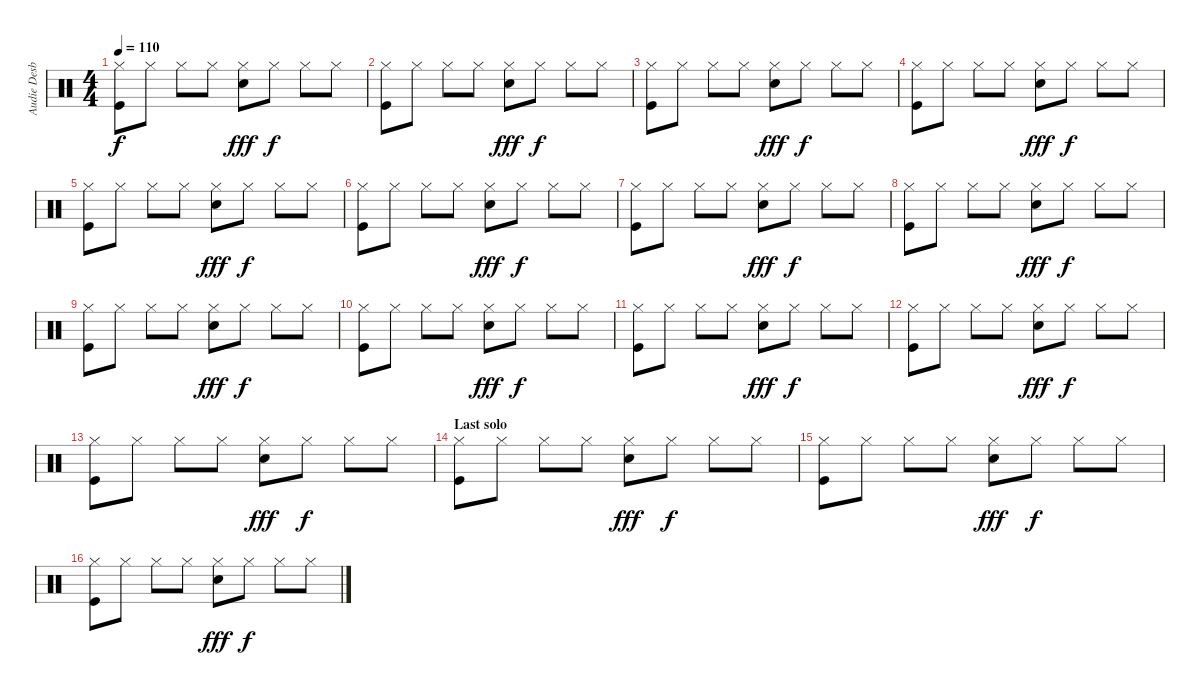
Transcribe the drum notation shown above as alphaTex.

\track ("Audie Desbrow" "Audie Desb") {instrument percussion}
\staff {score}
\articulation defaults
\ts (4 4)
\tempo 110
\clef neutral
\ks c
("Hi-Hat (closed)" "Kick (hit)").8{dy f} "Hi-Hat (closed)".8 "Hi-Hat (closed)".8 "Hi-Hat (closed)".8 ("Hi-Hat (closed)" "Snare (hit) 2").8{dy fff} "Hi-Hat (closed)".8{dy f} "Hi-Hat (closed)".8 "Hi-Hat (closed)".8 |
("Hi-Hat (closed)" "Kick (hit)").8 "Hi-Hat (closed)".8 "Hi-Hat (closed)".8 "Hi-Hat (closed)".8 ("Hi-Hat (closed)" "Snare (hit) 2").8{dy fff} "Hi-Hat (closed)".8{dy f} "Hi-Hat (closed)".8 "Hi-Hat (closed)".8 |
("Hi-Hat (closed)" "Kick (hit)").8 "Hi-Hat (closed)".8 "Hi-Hat (closed)".8 "Hi-Hat (closed)".8 ("Hi-Hat (closed)" "Snare (hit) 2").8{dy fff} "Hi-Hat (closed)".8{dy f} "Hi-Hat (closed)".8 "Hi-Hat (closed)".8 |
("Hi-Hat (closed)" "Kick (hit)").8 "Hi-Hat (closed)".8 "Hi-Hat (closed)".8 "Hi-Hat (closed)".8 ("Hi-Hat (closed)" "Snare (hit) 2").8{dy fff} "Hi-Hat (closed)".8{dy f} "Hi-Hat (closed)".8 "Hi-Hat (closed)".8 |
("Hi-Hat (closed)" "Kick (hit)").8 "Hi-Hat (closed)".8 "Hi-Hat (closed)".8 "Hi-Hat (closed)".8 ("Hi-Hat (closed)" "Snare (hit) 2").8{dy fff} "Hi-Hat (closed)".8{dy f} "Hi-Hat (closed)".8 "Hi-Hat (closed)".8 |
("Hi-Hat (closed)" "Kick (hit)").8 "Hi-Hat (closed)".8 "Hi-Hat (closed)".8 "Hi-Hat (closed)".8 ("Hi-Hat (closed)" "Snare (hit) 2").8{dy fff} "Hi-Hat (closed)".8{dy f} "Hi-Hat (closed)".8 "Hi-Hat (closed)".8 |
("Hi-Hat (closed)" "Kick (hit)").8 "Hi-Hat (closed)".8 "Hi-Hat (closed)".8 "Hi-Hat (closed)".8 ("Hi-Hat (closed)" "Snare (hit) 2").8{dy fff} "Hi-Hat (closed)".8{dy f} "Hi-Hat (closed)".8 "Hi-Hat (closed)".8 |
("Hi-Hat (closed)" "Kick (hit)").8 "Hi-Hat (closed)".8 "Hi-Hat (closed)".8 "Hi-Hat (closed)".8 ("Hi-Hat (closed)" "Snare (hit) 2").8{dy fff} "Hi-Hat (closed)".8{dy f} "Hi-Hat (closed)".8 "Hi-Hat (closed)".8 |
("Hi-Hat (closed)" "Kick (hit)").8 "Hi-Hat (closed)".8 "Hi-Hat (closed)".8 "Hi-Hat (closed)".8 ("Hi-Hat (closed)" "Snare (hit) 2").8{dy fff} "Hi-Hat (closed)".8{dy f} "Hi-Hat (closed)".8 "Hi-Hat (closed)".8 |
("Hi-Hat (closed)" "Kick (hit)").8 "Hi-Hat (closed)".8 "Hi-Hat (closed)".8 "Hi-Hat (closed)".8 ("Hi-Hat (closed)" "Snare (hit) 2").8{dy fff} "Hi-Hat (closed)".8{dy f} "Hi-Hat (closed)".8 "Hi-Hat (closed)".8 |
("Hi-Hat (closed)" "Kick (hit)").8 "Hi-Hat (closed)".8 "Hi-Hat (closed)".8 "Hi-Hat (closed)".8 ("Hi-Hat (closed)" "Snare (hit) 2").8{dy fff} "Hi-Hat (closed)".8{dy f} "Hi-Hat (closed)".8 "Hi-Hat (closed)".8 |
("Hi-Hat (closed)" "Kick (hit)").8 "Hi-Hat (closed)".8 "Hi-Hat (closed)".8 "Hi-Hat (closed)".8 ("Hi-Hat (closed)" "Snare (hit) 2").8{dy fff} "Hi-Hat (closed)".8{dy f} "Hi-Hat (closed)".8 "Hi-Hat (closed)".8 |
("Hi-Hat (closed)" "Kick (hit)").8 "Hi-Hat (closed)".8 "Hi-Hat (closed)".8 "Hi-Hat (closed)".8 ("Hi-Hat (closed)" "Snare (hit) 2").8{dy fff} "Hi-Hat (closed)".8{dy f} "Hi-Hat (closed)".8 "Hi-Hat (closed)".8 |
\section ("" "Last solo")
("Hi-Hat (closed)" "Kick (hit)").8 "Hi-Hat (closed)".8 "Hi-Hat (closed)".8 "Hi-Hat (closed)".8 ("Hi-Hat (closed)" "Snare (hit) 2").8{dy fff} "Hi-Hat (closed)".8{dy f} "Hi-Hat (closed)".8 "Hi-Hat (closed)".8 |
("Hi-Hat (closed)" "Kick (hit)").8 "Hi-Hat (closed)".8 "Hi-Hat (closed)".8 "Hi-Hat (closed)".8 ("Hi-Hat (closed)" "Snare (hit) 2").8{dy fff} "Hi-Hat (closed)".8{dy f} "Hi-Hat (closed)".8 "Hi-Hat (closed)".8 |
("Hi-Hat (closed)" "Kick (hit)").8 "Hi-Hat (closed)".8 "Hi-Hat (closed)".8 "Hi-Hat (closed)".8 ("Hi-Hat (closed)" "Snare (hit) 2").8{dy fff} "Hi-Hat (closed)".8{dy f} "Hi-Hat (closed)".8 "Hi-Hat (closed)".8
